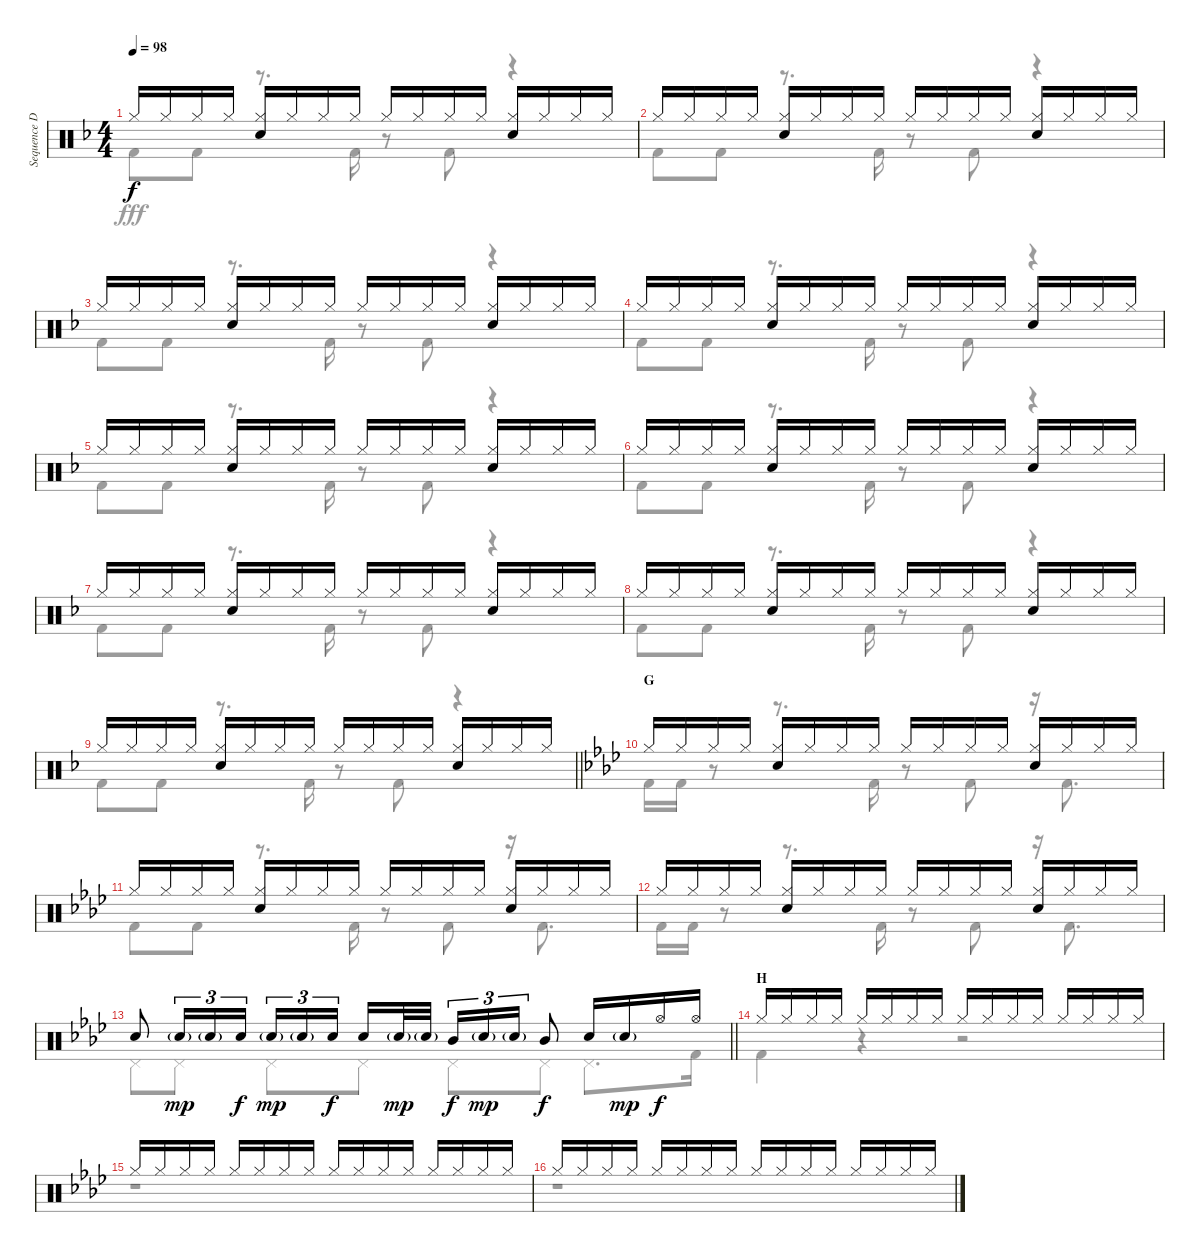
\track ("Sequence Drums I" "Sequence D") {instrument percussion}
\staff {score}
\articulation defaults
\voice
\ts (4 4)
\tempo 98
\clef neutral
\ks f "Hi-Hat (closed)".16{dy f} "Hi-Hat (closed)".16 "Hi-Hat (closed)".16 "Hi-Hat (closed)".16
("Hi-Hat (closed)" "Electric Snare (hit)").16 "Hi-Hat (closed)".16 "Hi-Hat (closed)".16 "Hi-Hat (closed)".16 "Hi-Hat (closed)".16 "Hi-Hat (closed)".16 "Hi-Hat (closed)".16 "Hi-Hat (closed)".16 ("Hi-Hat (closed)" "Electric Snare (hit)").16 "Hi-Hat (closed)".16 "Hi-Hat (closed)".16 "Hi-Hat (closed)".16 |
"Hi-Hat (closed)".16 "Hi-Hat (closed)".16 "Hi-Hat (closed)".16 "Hi-Hat (closed)".16 ("Hi-Hat (closed)" "Electric Snare (hit)").16 "Hi-Hat (closed)".16 "Hi-Hat (closed)".16 "Hi-Hat (closed)".16 "Hi-Hat (closed)".16 "Hi-Hat (closed)".16 "Hi-Hat (closed)".16 "Hi-Hat (closed)".16 ("Hi-Hat (closed)" "Electric Snare (hit)").16 "Hi-Hat (closed)".16 "Hi-Hat (closed)".16 "Hi-Hat (closed)".16 |
"Hi-Hat (closed)".16 "Hi-Hat (closed)".16 "Hi-Hat (closed)".16 "Hi-Hat (closed)".16 ("Hi-Hat (closed)" "Electric Snare (hit)").16 "Hi-Hat (closed)".16 "Hi-Hat (closed)".16 "Hi-Hat (closed)".16 "Hi-Hat (closed)".16 "Hi-Hat (closed)".16 "Hi-Hat (closed)".16 "Hi-Hat (closed)".16 ("Hi-Hat (closed)" "Electric Snare (hit)").16 "Hi-Hat (closed)".16 "Hi-Hat (closed)".16 "Hi-Hat (closed)".16 |
"Hi-Hat (closed)".16 "Hi-Hat (closed)".16 "Hi-Hat (closed)".16 "Hi-Hat (closed)".16 ("Hi-Hat (closed)" "Electric Snare (hit)").16 "Hi-Hat (closed)".16 "Hi-Hat (closed)".16 "Hi-Hat (closed)".16 "Hi-Hat (closed)".16 "Hi-Hat (closed)".16 "Hi-Hat (closed)".16 "Hi-Hat (closed)".16 ("Hi-Hat (closed)" "Electric Snare (hit)").16 "Hi-Hat (closed)".16 "Hi-Hat (closed)".16 "Hi-Hat (closed)".16 |
"Hi-Hat (closed)".16 "Hi-Hat (closed)".16 "Hi-Hat (closed)".16 "Hi-Hat (closed)".16 ("Hi-Hat (closed)" "Electric Snare (hit)").16 "Hi-Hat (closed)".16 "Hi-Hat (closed)".16 "Hi-Hat (closed)".16 "Hi-Hat (closed)".16 "Hi-Hat (closed)".16 "Hi-Hat (closed)".16 "Hi-Hat (closed)".16 ("Hi-Hat (closed)" "Electric Snare (hit)").16 "Hi-Hat (closed)".16 "Hi-Hat (closed)".16 "Hi-Hat (closed)".16 |
"Hi-Hat (closed)".16 "Hi-Hat (closed)".16 "Hi-Hat (closed)".16 "Hi-Hat (closed)".16 ("Hi-Hat (closed)" "Electric Snare (hit)").16 "Hi-Hat (closed)".16 "Hi-Hat (closed)".16 "Hi-Hat (closed)".16 "Hi-Hat (closed)".16 "Hi-Hat (closed)".16 "Hi-Hat (closed)".16 "Hi-Hat (closed)".16 ("Hi-Hat (closed)" "Electric Snare (hit)").16 "Hi-Hat (closed)".16 "Hi-Hat (closed)".16 "Hi-Hat (closed)".16 |
"Hi-Hat (closed)".16 "Hi-Hat (closed)".16 "Hi-Hat (closed)".16 "Hi-Hat (closed)".16 ("Hi-Hat (closed)" "Electric Snare (hit)").16 "Hi-Hat (closed)".16 "Hi-Hat (closed)".16 "Hi-Hat (closed)".16 "Hi-Hat (closed)".16 "Hi-Hat (closed)".16 "Hi-Hat (closed)".16 "Hi-Hat (closed)".16 ("Hi-Hat (closed)" "Electric Snare (hit)").16 "Hi-Hat (closed)".16 "Hi-Hat (closed)".16 "Hi-Hat (closed)".16 |
"Hi-Hat (closed)".16 "Hi-Hat (closed)".16 "Hi-Hat (closed)".16 "Hi-Hat (closed)".16 ("Hi-Hat (closed)" "Electric Snare (hit)").16 "Hi-Hat (closed)".16 "Hi-Hat (closed)".16 "Hi-Hat (closed)".16 "Hi-Hat (closed)".16 "Hi-Hat (closed)".16 "Hi-Hat (closed)".16 "Hi-Hat (closed)".16 ("Hi-Hat (closed)" "Electric Snare (hit)").16 "Hi-Hat (closed)".16 "Hi-Hat (closed)".16 "Hi-Hat (closed)".16 |
\barLineRight lightlight "Hi-Hat (closed)".16 "Hi-Hat (closed)".16 "Hi-Hat (closed)".16 "Hi-Hat (closed)".16
("Hi-Hat (closed)" "Electric Snare (hit)").16 "Hi-Hat (closed)".16 "Hi-Hat (closed)".16 "Hi-Hat (closed)".16 "Hi-Hat (closed)".16 "Hi-Hat (closed)".16 "Hi-Hat (closed)".16 "Hi-Hat (closed)".16 ("Hi-Hat (closed)" "Electric Snare (hit)").16 "Hi-Hat (closed)".16 "Hi-Hat (closed)".16 "Hi-Hat (closed)".16 |
\section ("" "G")
\ks ab "Hi-Hat (closed)".16 "Hi-Hat (closed)".16 "Hi-Hat (closed)".16 "Hi-Hat (closed)".16
("Hi-Hat (closed)" "Snare (hit) 2").16 "Hi-Hat (closed)".16 "Hi-Hat (closed)".16 "Hi-Hat (closed)".16 "Hi-Hat (closed)".16 "Hi-Hat (closed)".16 "Hi-Hat (closed)".16 "Hi-Hat (closed)".16 ("Hi-Hat (closed)" "Snare (hit) 2").16 "Hi-Hat (closed)".16 "Hi-Hat (closed)".16 "Hi-Hat (closed)".16 |
"Hi-Hat (closed)".16 "Hi-Hat (closed)".16 "Hi-Hat (closed)".16 "Hi-Hat (closed)".16 ("Hi-Hat (closed)" "Snare (hit) 2").16 "Hi-Hat (closed)".16 "Hi-Hat (closed)".16 "Hi-Hat (closed)".16 "Hi-Hat (closed)".16 "Hi-Hat (closed)".16 "Hi-Hat (closed)".16 "Hi-Hat (closed)".16 ("Hi-Hat (closed)" "Snare (hit) 2").16 "Hi-Hat (closed)".16 "Hi-Hat (closed)".16 "Hi-Hat (closed)".16 |
"Hi-Hat (closed)".16 "Hi-Hat (closed)".16 "Hi-Hat (closed)".16 "Hi-Hat (closed)".16 ("Hi-Hat (closed)" "Snare (hit) 2").16 "Hi-Hat (closed)".16 "Hi-Hat (closed)".16 "Hi-Hat (closed)".16 "Hi-Hat (closed)".16 "Hi-Hat (closed)".16 "Hi-Hat (closed)".16 "Hi-Hat (closed)".16 ("Hi-Hat (closed)" "Snare (hit) 2").16 "Hi-Hat (closed)".16 "Hi-Hat (closed)".16 "Hi-Hat (closed)".16 |
\barLineRight lightlight "Snare (hit) 2".8 "Electric Snare (hit)"{g}.16{tu (3 2) dy mp} "Electric Snare (hit)"{g}.16{tu (3 2)} "Electric Snare (hit)".16{tu (3 2) dy f} "Electric Snare (hit)"{g}.16{tu (3 2) dy mp} "Electric Snare (hit)"{g}.16{tu (3 2)} "Electric Snare (hit)".16{tu (3 2) dy f beam splitsecondary} "Electric Snare (hit)".16 "Electric Snare (hit)"{g}.32{dy mp} "Electric Snare (hit)"{g}.32 "Mid Tom (hit)".16{tu (3 2) dy f} "Electric Snare (hit)"{g}.16{tu (3 2) dy mp} "Electric Snare (hit)"{g}.16{tu (3 2)} "Mid Tom (hit)".8{dy f} "Electric Snare (hit)".16 "Electric Snare (hit)"{g}.16{dy mp} "Hi-Hat (open)".16{dy f} "Hi-Hat (open)".16
|
\section ("" "H")
"Hi-Hat (closed)".16 "Hi-Hat (closed)".16 "Hi-Hat (closed)".16 "Hi-Hat (closed)".16 "Hi-Hat (closed)".16 "Hi-Hat (closed)".16 "Hi-Hat (closed)".16 "Hi-Hat (closed)".16 "Hi-Hat (closed)".16 "Hi-Hat (closed)".16 "Hi-Hat (closed)".16 "Hi-Hat (closed)".16 "Hi-Hat (closed)".16 "Hi-Hat (closed)".16 "Hi-Hat (closed)".16 "Hi-Hat (closed)".16 |
"Hi-Hat (closed)".16 "Hi-Hat (closed)".16 "Hi-Hat (closed)".16 "Hi-Hat (closed)".16 "Hi-Hat (closed)".16 "Hi-Hat (closed)".16 "Hi-Hat (closed)".16 "Hi-Hat (closed)".16 "Hi-Hat (closed)".16 "Hi-Hat (closed)".16 "Hi-Hat (closed)".16 "Hi-Hat (closed)".16 "Hi-Hat (closed)".16 "Hi-Hat (closed)".16 "Hi-Hat (closed)".16 "Hi-Hat (closed)".16 |
"Hi-Hat (closed)".16 "Hi-Hat (closed)".16 "Hi-Hat (closed)".16 "Hi-Hat (closed)".16 "Hi-Hat (closed)".16 "Hi-Hat (closed)".16 "Hi-Hat (closed)".16 "Hi-Hat (closed)".16 "Hi-Hat (closed)".16 "Hi-Hat (closed)".16 "Hi-Hat (closed)".16 "Hi-Hat (closed)".16 "Hi-Hat (closed)".16 "Hi-Hat (closed)".16 "Hi-Hat (closed)".16 "Hi-Hat (closed)".16
\voice
\clef neutral
\ottava regular
\simile none
\ks f "Kick (hit) 2".8{dy fff} "Kick (hit) 2".8
r.8{d} "Kick (hit) 2".16 r.8 "Kick (hit) 2".8 r.4 |
"Kick (hit) 2".8 "Kick (hit) 2".8 r.8{d} "Kick (hit) 2".16 r.8 "Kick (hit) 2".8 r.4 |
"Kick (hit) 2".8 "Kick (hit) 2".8 r.8{d} "Kick (hit) 2".16 r.8 "Kick (hit) 2".8 r.4 |
"Kick (hit) 2".8 "Kick (hit) 2".8 r.8{d} "Kick (hit) 2".16 r.8 "Kick (hit) 2".8 r.4 |
"Kick (hit) 2".8 "Kick (hit) 2".8 r.8{d} "Kick (hit) 2".16 r.8 "Kick (hit) 2".8 r.4 |
"Kick (hit) 2".8 "Kick (hit) 2".8 r.8{d} "Kick (hit) 2".16 r.8 "Kick (hit) 2".8 r.4 |
"Kick (hit) 2".8 "Kick (hit) 2".8 r.8{d} "Kick (hit) 2".16 r.8 "Kick (hit) 2".8 r.4 |
"Kick (hit) 2".8 "Kick (hit) 2".8 r.8{d} "Kick (hit) 2".16 r.8 "Kick (hit) 2".8 r.4 |
\barLineRight lightlight "Kick (hit) 2".8 "Kick (hit) 2".8
r.8{d} "Kick (hit) 2".16 r.8 "Kick (hit) 2".8 r.4 |
\ks ab "Kick (hit) 2".16 "Kick (hit) 2".16
r.8 r.8{d} "Kick (hit) 2".16 r.8 "Kick (hit) 2".8 r.16 "Kick (hit) 2".8{d} |
"Kick (hit) 2".8 "Kick (hit) 2".8 r.8{d} "Kick (hit) 2".16 r.8 "Kick (hit) 2".8 r.16 "Kick (hit) 2".8{d} |
"Kick (hit) 2".16 "Kick (hit) 2".16 r.8 r.8{d} "Kick (hit) 2".16 r.8 "Kick (hit) 2".8 r.16 "Kick (hit) 2".8{d} |
\barLineRight lightlight "Pedal Hi-Hat (hit)".8 "Pedal Hi-Hat (hit)".8 "Pedal Hi-Hat (hit)".8 "Pedal Hi-Hat (hit)".8 "Pedal Hi-Hat (hit)".8 "Pedal Hi-Hat (hit)".8 "Pedal Hi-Hat (hit)".8{d} "Kick (hit) 2".16
|
"Kick (hit) 2".4 r.4 r.2 |
r.1 |
r.1
